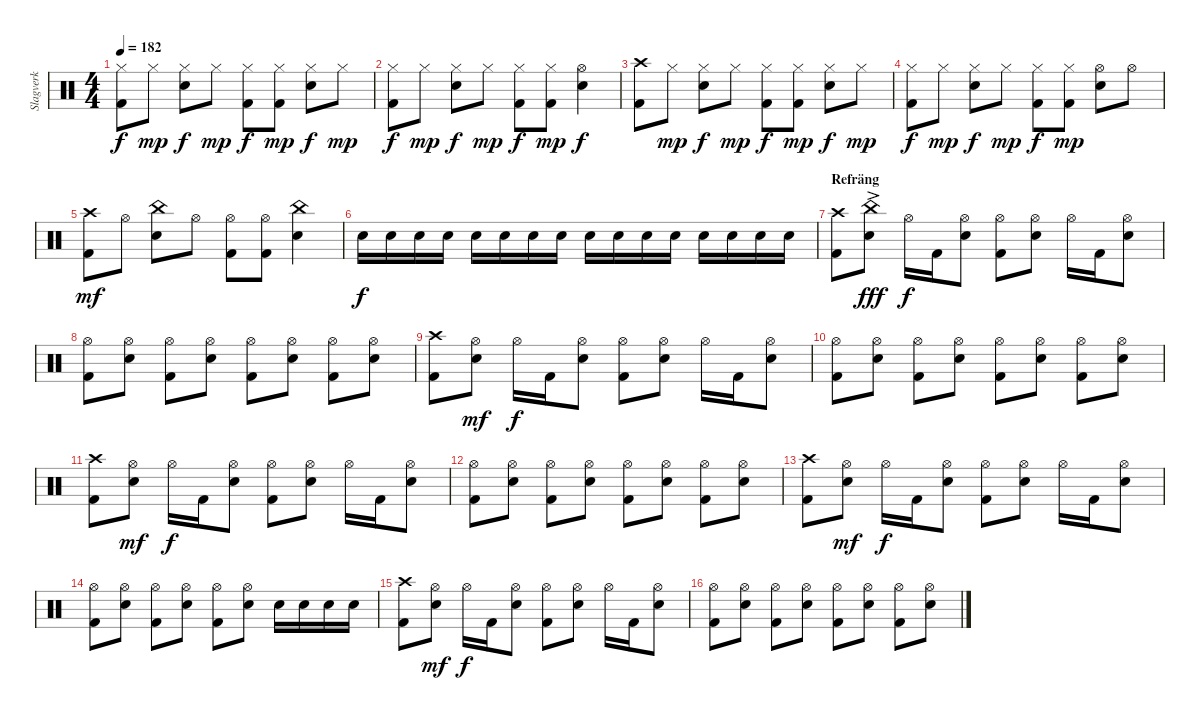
\track ("Slagverk" "Slagverk") {instrument percussion}
\staff {score}
\articulation defaults
\ts (4 4)
\tempo 182
\clef neutral
\ks c
("Hi-Hat (closed)" "Kick (hit) 2").8{dy f} "Hi-Hat (closed)".8{dy mp} ("Hi-Hat (closed)" "Electric Snare (hit)").8{dy f} "Hi-Hat (closed)".8{dy mp} ("Hi-Hat (closed)" "Kick (hit) 2").8{dy f} ("Hi-Hat (closed)" "Kick (hit) 2").8{dy mp} ("Hi-Hat (closed)" "Electric Snare (hit)").8{dy f} "Hi-Hat (closed)".8{dy mp} |
("Hi-Hat (closed)" "Kick (hit) 2").8{dy f} "Hi-Hat (closed)".8{dy mp} ("Hi-Hat (closed)" "Electric Snare (hit)").8{dy f} "Hi-Hat (closed)".8{dy mp} ("Hi-Hat (closed)" "Kick (hit) 2").8{dy f} ("Hi-Hat (closed)" "Kick (hit) 2").8{dy mp} ("Hi-Hat (open)" "Electric Snare (hit)").4{dy f} |
("Crash high (hit)" "Kick (hit) 2").8 "Hi-Hat (closed)".8{dy mp} ("Hi-Hat (closed)" "Electric Snare (hit)").8{dy f} "Hi-Hat (closed)".8{dy mp} ("Hi-Hat (closed)" "Kick (hit) 2").8{dy f} ("Hi-Hat (closed)" "Kick (hit) 2").8{dy mp} ("Hi-Hat (closed)" "Electric Snare (hit)").8{dy f} "Hi-Hat (closed)".8{dy mp} |
("Hi-Hat (closed)" "Kick (hit) 2").8{dy f} "Hi-Hat (closed)".8{dy mp} ("Hi-Hat (closed)" "Electric Snare (hit)").8{dy f} "Hi-Hat (closed)".8{dy mp} ("Hi-Hat (closed)" "Kick (hit) 2").8{dy f} ("Hi-Hat (closed)" "Kick (hit) 2").8{dy mp} ("Hi-Hat (open)" "Electric Snare (hit)").8 "Hi-Hat (open)".8 |
("Crash high (hit)" "Kick (hit) 2").8{dy mf} "Hi-Hat (open)".8 ("China (hit)" "Electric Snare (hit)").8 "Hi-Hat (open)".8 ("Hi-Hat (open)" "Kick (hit) 2").8 ("Hi-Hat (open)" "Kick (hit) 2").8 ("China (hit)" "Electric Snare (hit)").4 |
"Electric Snare (hit)".16{dy f} "Electric Snare (hit)".16 "Electric Snare (hit)".16 "Electric Snare (hit)".16 "Electric Snare (hit)".16 "Electric Snare (hit)".16 "Electric Snare (hit)".16 "Electric Snare (hit)".16 "Electric Snare (hit)".16 "Electric Snare (hit)".16 "Electric Snare (hit)".16 "Electric Snare (hit)".16 "Electric Snare (hit)".16 "Electric Snare (hit)".16 "Electric Snare (hit)".16 "Electric Snare (hit)".16 |
\section ("" "Refräng")
("Crash high (hit)" "Kick (hit) 2").8 ("China (hit)" "Electric Snare (hit)"{ac}).8{dy fff} "Hi-Hat (open)".16{dy f} "Kick (hit) 2".16 ("Hi-Hat (open)" "Electric Snare (hit)").8 ("Hi-Hat (open)" "Kick (hit) 2").8 ("Hi-Hat (open)" "Electric Snare (hit)").8 "Hi-Hat (open)".16 "Kick (hit) 2".16 ("Hi-Hat (open)" "Electric Snare (hit)").8 |
("Hi-Hat (open)" "Kick (hit) 2").8 ("Hi-Hat (open)" "Electric Snare (hit)").8 ("Hi-Hat (open)" "Kick (hit) 2").8 ("Hi-Hat (open)" "Electric Snare (hit)").8 ("Hi-Hat (open)" "Kick (hit) 2").8 ("Hi-Hat (open)" "Electric Snare (hit)").8 ("Hi-Hat (open)" "Kick (hit) 2").8 ("Hi-Hat (open)" "Electric Snare (hit)").8 |
("Crash high (hit)" "Kick (hit) 2").8 ("Hi-Hat (open)" "Electric Snare (hit)").8{dy mf} "Hi-Hat (open)".16{dy f} "Kick (hit) 2".16 ("Hi-Hat (open)" "Electric Snare (hit)").8 ("Hi-Hat (open)" "Kick (hit) 2").8 ("Hi-Hat (open)" "Electric Snare (hit)").8 "Hi-Hat (open)".16 "Kick (hit) 2".16 ("Hi-Hat (open)" "Electric Snare (hit)").8 |
("Hi-Hat (open)" "Kick (hit) 2").8 ("Hi-Hat (open)" "Electric Snare (hit)").8 ("Hi-Hat (open)" "Kick (hit) 2").8 ("Hi-Hat (open)" "Electric Snare (hit)").8 ("Hi-Hat (open)" "Kick (hit) 2").8 ("Hi-Hat (open)" "Electric Snare (hit)").8 ("Hi-Hat (open)" "Kick (hit) 2").8 ("Hi-Hat (open)" "Electric Snare (hit)").8 |
("Crash high (hit)" "Kick (hit) 2").8 ("Hi-Hat (open)" "Electric Snare (hit)").8{dy mf} "Hi-Hat (open)".16{dy f} "Kick (hit) 2".16 ("Hi-Hat (open)" "Electric Snare (hit)").8 ("Hi-Hat (open)" "Kick (hit) 2").8 ("Hi-Hat (open)" "Electric Snare (hit)").8 "Hi-Hat (open)".16 "Kick (hit) 2".16 ("Hi-Hat (open)" "Electric Snare (hit)").8 |
("Hi-Hat (open)" "Kick (hit) 2").8 ("Hi-Hat (open)" "Electric Snare (hit)").8 ("Hi-Hat (open)" "Kick (hit) 2").8 ("Hi-Hat (open)" "Electric Snare (hit)").8 ("Hi-Hat (open)" "Kick (hit) 2").8 ("Hi-Hat (open)" "Electric Snare (hit)").8 ("Hi-Hat (open)" "Kick (hit) 2").8 ("Hi-Hat (open)" "Electric Snare (hit)").8 |
("Crash high (hit)" "Kick (hit) 2").8 ("Hi-Hat (open)" "Electric Snare (hit)").8{dy mf} "Hi-Hat (open)".16{dy f} "Kick (hit) 2".16 ("Hi-Hat (open)" "Electric Snare (hit)").8 ("Hi-Hat (open)" "Kick (hit) 2").8 ("Hi-Hat (open)" "Electric Snare (hit)").8 "Hi-Hat (open)".16 "Kick (hit) 2".16 ("Hi-Hat (open)" "Electric Snare (hit)").8 |
("Hi-Hat (open)" "Kick (hit) 2").8 ("Hi-Hat (open)" "Electric Snare (hit)").8 ("Hi-Hat (open)" "Kick (hit) 2").8 ("Hi-Hat (open)" "Electric Snare (hit)").8 ("Hi-Hat (open)" "Kick (hit) 2").8 ("Hi-Hat (open)" "Electric Snare (hit)").8 "Electric Snare (hit)".16 "Electric Snare (hit)".16 "Electric Snare (hit)".16 "Electric Snare (hit)".16 |
("Crash high (hit)" "Kick (hit) 2").8 ("Hi-Hat (open)" "Electric Snare (hit)").8{dy mf} "Hi-Hat (open)".16{dy f} "Kick (hit) 2".16 ("Hi-Hat (open)" "Electric Snare (hit)").8 ("Hi-Hat (open)" "Kick (hit) 2").8 ("Hi-Hat (open)" "Electric Snare (hit)").8 "Hi-Hat (open)".16 "Kick (hit) 2".16 ("Hi-Hat (open)" "Electric Snare (hit)").8 |
("Hi-Hat (open)" "Kick (hit) 2").8 ("Hi-Hat (open)" "Electric Snare (hit)").8 ("Hi-Hat (open)" "Kick (hit) 2").8 ("Hi-Hat (open)" "Electric Snare (hit)").8 ("Hi-Hat (open)" "Kick (hit) 2").8 ("Hi-Hat (open)" "Electric Snare (hit)").8 ("Hi-Hat (open)" "Kick (hit) 2").8 ("Hi-Hat (open)" "Electric Snare (hit)").8
